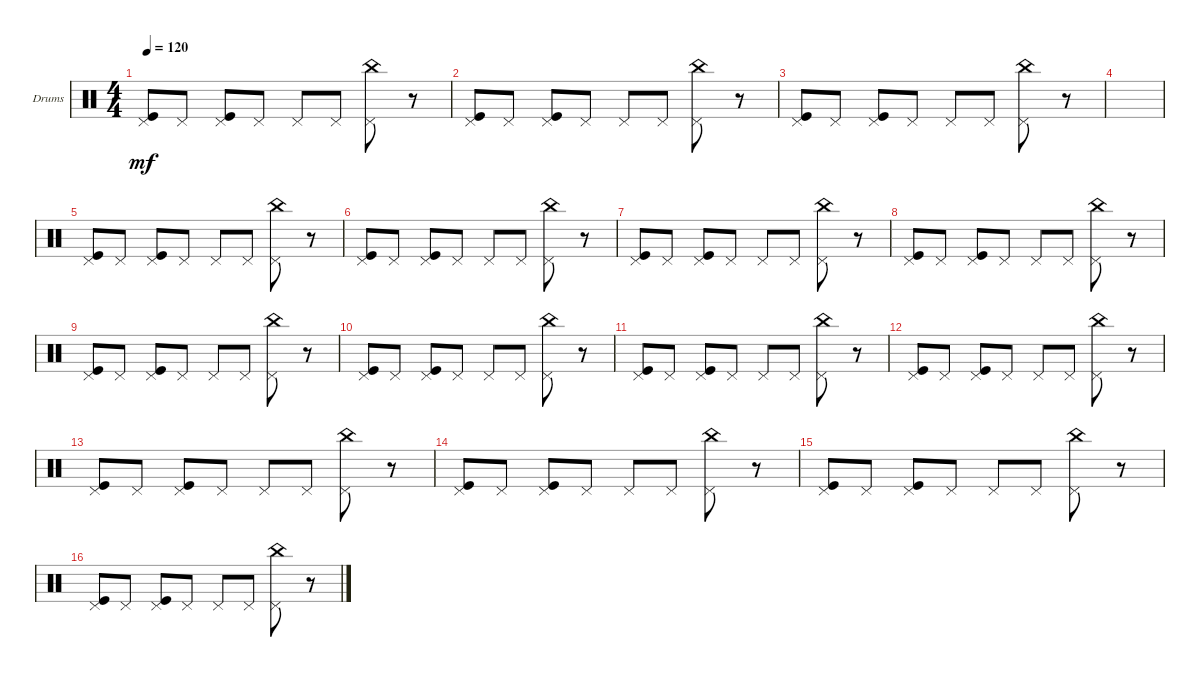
\defaultSystemsLayout 4
\bracketExtendMode groupsimilarinstruments
\firstSystemTrackNameOrientation horizontal
\otherSystemsTrackNameOrientation horizontal
\track ("Drumkit" "Drums") {instrument percussion}
\staff {score}
\articulation defaults
\ts (4 4)
\tempo 120
\clef neutral
\scale
0.333333
\ks c
("Pedal Hi-Hat (hit)" "Kick (hit)").8{dy mf} "Pedal Hi-Hat (hit)".8 ("Pedal Hi-Hat (hit)" "Kick (hit)").8 "Pedal Hi-Hat (hit)".8 "Pedal Hi-Hat (hit)".8 "Pedal Hi-Hat (hit)".8 ("Pedal Hi-Hat (hit)" "China (hit)").8 r.8 |
\scale
0.333333 ("Pedal Hi-Hat (hit)" "Kick (hit)").8 "Pedal Hi-Hat (hit)".8 ("Pedal Hi-Hat (hit)" "Kick (hit)").8 "Pedal Hi-Hat (hit)".8 "Pedal Hi-Hat (hit)".8 "Pedal Hi-Hat (hit)".8 ("Pedal Hi-Hat (hit)" "China (hit)").8 r.8 |
\scale
0.333333 ("Pedal Hi-Hat (hit)" "Kick (hit)").8 "Pedal Hi-Hat (hit)".8 ("Pedal Hi-Hat (hit)" "Kick (hit)").8 "Pedal Hi-Hat (hit)".8 "Pedal Hi-Hat (hit)".8 "Pedal Hi-Hat (hit)".8 ("Pedal Hi-Hat (hit)" "China (hit)").8 r.8 |
\scale
0.333333 |
\scale
0.333333 ("Pedal Hi-Hat (hit)" "Kick (hit)").8 "Pedal Hi-Hat (hit)".8 ("Pedal Hi-Hat (hit)" "Kick (hit)").8 "Pedal Hi-Hat (hit)".8 "Pedal Hi-Hat (hit)".8 "Pedal Hi-Hat (hit)".8 ("Pedal Hi-Hat (hit)" "China (hit)").8 r.8 |
\scale
0.333333 ("Pedal Hi-Hat (hit)" "Kick (hit)").8 "Pedal Hi-Hat (hit)".8 ("Pedal Hi-Hat (hit)" "Kick (hit)").8 "Pedal Hi-Hat (hit)".8 "Pedal Hi-Hat (hit)".8 "Pedal Hi-Hat (hit)".8 ("Pedal Hi-Hat (hit)" "China (hit)").8 r.8 |
\scale
0.333333 ("Pedal Hi-Hat (hit)" "Kick (hit)").8 "Pedal Hi-Hat (hit)".8 ("Pedal Hi-Hat (hit)" "Kick (hit)").8 "Pedal Hi-Hat (hit)".8 "Pedal Hi-Hat (hit)".8 "Pedal Hi-Hat (hit)".8 ("Pedal Hi-Hat (hit)" "China (hit)").8 r.8 |
\scale
0.333333 ("Pedal Hi-Hat (hit)" "Kick (hit)").8 "Pedal Hi-Hat (hit)".8 ("Pedal Hi-Hat (hit)" "Kick (hit)").8 "Pedal Hi-Hat (hit)".8 "Pedal Hi-Hat (hit)".8 "Pedal Hi-Hat (hit)".8 ("Pedal Hi-Hat (hit)" "China (hit)").8 r.8 |
\scale
0.333333 ("Pedal Hi-Hat (hit)" "Kick (hit)").8 "Pedal Hi-Hat (hit)".8 ("Pedal Hi-Hat (hit)" "Kick (hit)").8 "Pedal Hi-Hat (hit)".8 "Pedal Hi-Hat (hit)".8 "Pedal Hi-Hat (hit)".8 ("Pedal Hi-Hat (hit)" "China (hit)").8 r.8 |
\scale
0.333333 ("Pedal Hi-Hat (hit)" "Kick (hit)").8 "Pedal Hi-Hat (hit)".8 ("Pedal Hi-Hat (hit)" "Kick (hit)").8 "Pedal Hi-Hat (hit)".8 "Pedal Hi-Hat (hit)".8 "Pedal Hi-Hat (hit)".8 ("Pedal Hi-Hat (hit)" "China (hit)").8 r.8 |
\scale
0.333333 ("Pedal Hi-Hat (hit)" "Kick (hit)").8 "Pedal Hi-Hat (hit)".8 ("Pedal Hi-Hat (hit)" "Kick (hit)").8 "Pedal Hi-Hat (hit)".8 "Pedal Hi-Hat (hit)".8 "Pedal Hi-Hat (hit)".8 ("Pedal Hi-Hat (hit)" "China (hit)").8 r.8 |
\scale
0.333333 ("Pedal Hi-Hat (hit)" "Kick (hit)").8 "Pedal Hi-Hat (hit)".8 ("Pedal Hi-Hat (hit)" "Kick (hit)").8 "Pedal Hi-Hat (hit)".8 "Pedal Hi-Hat (hit)".8 "Pedal Hi-Hat (hit)".8 ("Pedal Hi-Hat (hit)" "China (hit)").8 r.8 |
\scale
0.333333 ("Pedal Hi-Hat (hit)" "Kick (hit)").8 "Pedal Hi-Hat (hit)".8 ("Pedal Hi-Hat (hit)" "Kick (hit)").8 "Pedal Hi-Hat (hit)".8 "Pedal Hi-Hat (hit)".8 "Pedal Hi-Hat (hit)".8 ("Pedal Hi-Hat (hit)" "China (hit)").8 r.8 |
\scale
0.333333 ("Pedal Hi-Hat (hit)" "Kick (hit)").8 "Pedal Hi-Hat (hit)".8 ("Pedal Hi-Hat (hit)" "Kick (hit)").8 "Pedal Hi-Hat (hit)".8 "Pedal Hi-Hat (hit)".8 "Pedal Hi-Hat (hit)".8 ("Pedal Hi-Hat (hit)" "China (hit)").8 r.8 |
\scale
0.333333 ("Pedal Hi-Hat (hit)" "Kick (hit)").8 "Pedal Hi-Hat (hit)".8 ("Pedal Hi-Hat (hit)" "Kick (hit)").8 "Pedal Hi-Hat (hit)".8 "Pedal Hi-Hat (hit)".8 "Pedal Hi-Hat (hit)".8 ("Pedal Hi-Hat (hit)" "China (hit)").8 r.8 |
\scale
0.333333 ("Pedal Hi-Hat (hit)" "Kick (hit)").8 "Pedal Hi-Hat (hit)".8 ("Pedal Hi-Hat (hit)" "Kick (hit)").8 "Pedal Hi-Hat (hit)".8 "Pedal Hi-Hat (hit)".8 "Pedal Hi-Hat (hit)".8 ("Pedal Hi-Hat (hit)" "China (hit)").8 r.8
